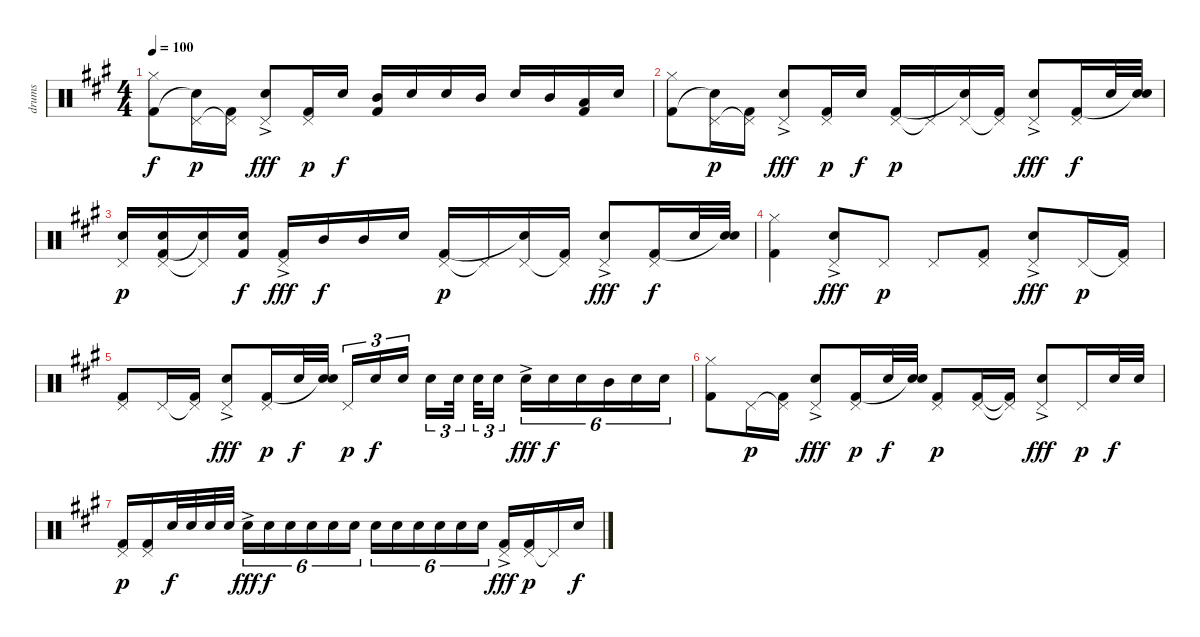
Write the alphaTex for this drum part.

\track ("drums" "drums") {instrument percussion}
\staff {score}
\articulation defaults
\ts (4 4)
\tempo 100
\clef neutral
\ks a
("Hi-Hat (closed)" "Kick (hit) 2").8{dy f} ("Pedal Hi-Hat (hit)" "Snare (hit)"{t}).16{dy p} ("Pedal Hi-Hat (hit)"{t} "Kick (hit) 2").16 ("Pedal Hi-Hat (hit)" "Snare (hit) 2"{ac}).8{dy fff} ("Pedal Hi-Hat (hit)" "Kick (hit) 2").16{dy p} "Snare (hit) 2".16{dy f} ("Mid Tom (hit)" "Kick (hit) 2").16 "Snare (hit) 2".16 "Snare (hit) 2".16 "Mid Tom (hit)".16 "Snare (hit) 2".16 "Mid Tom (hit)".16 ("Low Tom (hit)" "Kick (hit) 2").16 "Snare (hit) 2".16 |
("Hi-Hat (closed)" "Kick (hit) 2").8 ("Pedal Hi-Hat (hit)" "Snare (hit)"{t}).16{dy p} ("Pedal Hi-Hat (hit)"{t} "Kick (hit) 2").16 ("Pedal Hi-Hat (hit)" "Snare (hit) 2"{ac}).8{dy fff} ("Pedal Hi-Hat (hit)" "Kick (hit) 2").16{dy p} "Snare (hit) 2".16{dy f} ("Pedal Hi-Hat (hit)" "Kick (hit) 2").16{dy p} "Pedal Hi-Hat (hit)"{t}.16 ("Pedal Hi-Hat (hit)" "Snare (hit) 2"{t}).16 ("Pedal Hi-Hat (hit)"{t} "Kick (hit) 2").16 ("Pedal Hi-Hat (hit)" "Snare (hit) 2"{ac}).8{dy fff} ("Pedal Hi-Hat (hit)" "Kick (hit) 2").16{dy f} "Snare (hit) 2".32 ("Snare (hit) 2" "Snare (hit)"{t}).32 |
("Pedal Hi-Hat (hit)" "Snare (hit) 2").16{dy p} ("Pedal Hi-Hat (hit)" "Kick (hit) 2" "Snare (hit) 2").16 ("Pedal Hi-Hat (hit)"{t} "Snare (hit)"{t}).16 ("Snare (hit) 2" "Kick (hit) 2").16{dy f} ("Pedal Hi-Hat (hit)" "Kick (hit) 2"{ac}).16{dy fff} "Mid Tom (hit)".16{dy f} "Mid Tom (hit)".16 "Snare (hit) 2".16 ("Pedal Hi-Hat (hit)" "Kick (hit) 2").16{dy p} "Pedal Hi-Hat (hit)"{t}.16 ("Pedal Hi-Hat (hit)" "Snare (hit) 2"{t}).16 ("Pedal Hi-Hat (hit)"{t} "Kick (hit) 2").16 ("Pedal Hi-Hat (hit)" "Snare (hit) 2"{ac}).8{dy fff} ("Pedal Hi-Hat (hit)" "Kick (hit) 2").16{dy f} "Snare (hit) 2".32 ("Snare (hit) 2" "Snare (hit)"{t}).32 |
("Hi-Hat (closed)" "Kick (hit) 2").4 ("Pedal Hi-Hat (hit)" "Snare (hit) 2"{ac}).8{dy fff} "Pedal Hi-Hat (hit)".8{dy p} "Pedal Hi-Hat (hit)".8 ("Pedal Hi-Hat (hit)" "Kick (hit) 2").8 ("Pedal Hi-Hat (hit)" "Snare (hit) 2"{ac}).8{dy fff} "Pedal Hi-Hat (hit)".16{dy p} ("Pedal Hi-Hat (hit)"{t} "Kick (hit) 2").16 |
("Pedal Hi-Hat (hit)" "Kick (hit) 2").8 "Pedal Hi-Hat (hit)".16 ("Pedal Hi-Hat (hit)"{t} "Kick (hit) 2").16 ("Pedal Hi-Hat (hit)" "Snare (hit) 2"{ac}).8{dy fff} ("Pedal Hi-Hat (hit)" "Kick (hit) 2").16{dy p} "Snare (hit) 2".32{dy f} ("Snare (hit) 2" "Snare (hit)"{t}).32 "Pedal Hi-Hat (hit)".16{tu (3 2) dy p} "Snare (hit) 2".16{tu (3 2) dy f} "Snare (hit) 2".16{tu (3 2)} "Snare (hit) 2".16{tu (3 2)} "Snare (hit) 2".32{tu (3 2)} "Snare (hit) 2".32{tu (3 2)} "Snare (hit) 2".16{tu (3 2)} "Snare (hit) 2"{ac}.16{tu (6 4) dy fff} "Snare (hit) 2".16{tu (6 4) dy f} "Snare (hit) 2".16{tu (6 4)} "Mid Tom (hit)".16{tu (6 4)} "Snare (hit) 2".16{tu (6 4)} "Snare (hit) 2".16{tu (6 4)} |
("Hi-Hat (closed)" "Kick (hit) 2").8 "Pedal Hi-Hat (hit)".16{dy p} ("Pedal Hi-Hat (hit)"{t} "Kick (hit) 2").16 ("Pedal Hi-Hat (hit)" "Snare (hit) 2"{ac}).8{dy fff} ("Pedal Hi-Hat (hit)" "Kick (hit) 2").16{dy p} "Snare (hit) 2".32{dy f} ("Snare (hit) 2" "Snare (hit)"{t}).32 ("Pedal Hi-Hat (hit)" "Kick (hit) 2").8{dy p} ("Pedal Hi-Hat (hit)" "Kick (hit) 2").16 ("Pedal Hi-Hat (hit)"{t} "Kick (hit) 2"{t}).16 ("Pedal Hi-Hat (hit)" "Snare (hit) 2"{ac}).8{dy fff} "Pedal Hi-Hat (hit)".16{dy p} "Snare (hit) 2".32{dy f} "Snare (hit) 2".32 |
("Pedal Hi-Hat (hit)" "Kick (hit) 2").16{dy p} ("Pedal Hi-Hat (hit)" "Kick (hit) 2").16 "Snare (hit) 2".32{dy f} "Snare (hit) 2".32 "Snare (hit) 2".32 "Snare (hit) 2".32 "Snare (hit) 2"{ac}.16{tu (6 4) dy fff} "Snare (hit) 2".16{tu (6 4) dy f} "Snare (hit) 2".16{tu (6 4)} "Snare (hit) 2".16{tu (6 4)} "Snare (hit) 2".16{tu (6 4)} "Snare (hit) 2".16{tu (6 4)} "Snare (hit) 2".16{tu (6 4)} "Snare (hit) 2".16{tu (6 4)} "Snare (hit) 2".16{tu (6 4)} "Snare (hit) 2".16{tu (6 4)} "Snare (hit) 2".16{tu (6 4)} "Snare (hit) 2".16{tu (6 4)} ("Pedal Hi-Hat (hit)" "Kick (hit) 2"{ac}).16{dy fff} ("Pedal Hi-Hat (hit)" "Kick (hit) 2").16{dy p} "Pedal Hi-Hat (hit)"{t}.16 "Snare (hit) 2".16{dy f}
